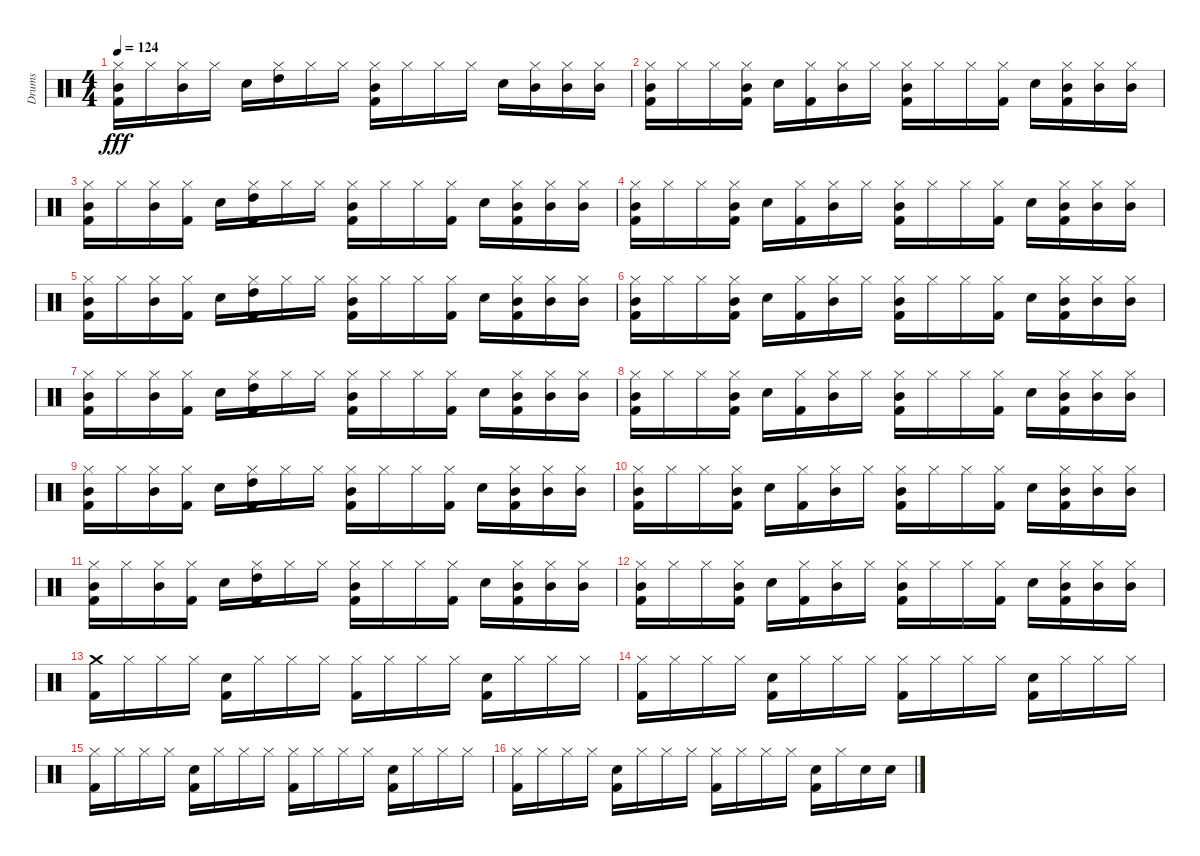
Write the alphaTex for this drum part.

\track ("Drums" "Drums") {instrument percussion}
\staff {score}
\articulation defaults
\ts (4 4)
\tempo 124
\clef neutral
\ks c
("Hi-Hat (closed)" "Mid Tom (hit)" "Kick (hit) 2").16{dy fff} "Hi-Hat (closed)".16 ("Hi-Hat (closed)" "Mid Tom (hit)").16 "Hi-Hat (closed)".16 "Snare (hit) 2".16 ("Hi-Hat (closed)" "High Tom (hit)").16 "Hi-Hat (closed)".16 "Hi-Hat (closed)".16 ("Hi-Hat (closed)" "Mid Tom (hit)" "Kick (hit) 2").16 "Hi-Hat (closed)".16 "Hi-Hat (closed)".16 "Hi-Hat (closed)".16 "Snare (hit) 2".16 ("Hi-Hat (closed)" "Mid Tom (hit)").16 ("Hi-Hat (closed)" "Mid Tom (hit)").16 ("Hi-Hat (closed)" "Mid Tom (hit)").16 |
("Hi-Hat (closed)" "Mid Tom (hit)" "Kick (hit) 2").16 "Hi-Hat (closed)".16 "Hi-Hat (closed)".16 ("Hi-Hat (closed)" "Mid Tom (hit)" "Kick (hit) 2").16 "Snare (hit) 2".16 ("Hi-Hat (closed)" "Kick (hit) 2").16 ("Hi-Hat (closed)" "Mid Tom (hit)").16 "Hi-Hat (closed)".16 ("Hi-Hat (closed)" "Mid Tom (hit)" "Kick (hit) 2").16 "Hi-Hat (closed)".16 "Hi-Hat (closed)".16 ("Hi-Hat (closed)" "Kick (hit) 2").16 "Snare (hit) 2".16 ("Hi-Hat (closed)" "Mid Tom (hit)" "Kick (hit) 2").16 ("Hi-Hat (closed)" "Mid Tom (hit)").16 ("Hi-Hat (closed)" "Mid Tom (hit)").16 |
("Hi-Hat (closed)" "Mid Tom (hit)" "Kick (hit) 2").16 "Hi-Hat (closed)".16 ("Hi-Hat (closed)" "Mid Tom (hit)").16 ("Hi-Hat (closed)" "Kick (hit) 2").16 "Snare (hit) 2".16 ("Hi-Hat (closed)" "High Tom (hit)" "Kick (hit) 2").16 "Hi-Hat (closed)".16 "Hi-Hat (closed)".16 ("Hi-Hat (closed)" "Mid Tom (hit)" "Kick (hit) 2").16 "Hi-Hat (closed)".16 "Hi-Hat (closed)".16 ("Hi-Hat (closed)" "Kick (hit) 2").16 "Snare (hit) 2".16 ("Hi-Hat (closed)" "Mid Tom (hit)" "Kick (hit) 2").16 ("Hi-Hat (closed)" "Mid Tom (hit)").16 ("Hi-Hat (closed)" "Mid Tom (hit)").16 |
("Hi-Hat (closed)" "Mid Tom (hit)" "Kick (hit) 2").16 "Hi-Hat (closed)".16 "Hi-Hat (closed)".16 ("Hi-Hat (closed)" "Mid Tom (hit)" "Kick (hit) 2").16 "Snare (hit) 2".16 ("Hi-Hat (closed)" "Kick (hit) 2").16 ("Hi-Hat (closed)" "Mid Tom (hit)").16 "Hi-Hat (closed)".16 ("Hi-Hat (closed)" "Mid Tom (hit)" "Kick (hit) 2").16 "Hi-Hat (closed)".16 "Hi-Hat (closed)".16 ("Hi-Hat (closed)" "Kick (hit) 2").16 "Snare (hit) 2".16 ("Hi-Hat (closed)" "Mid Tom (hit)" "Kick (hit) 2").16 ("Hi-Hat (closed)" "Mid Tom (hit)").16 ("Hi-Hat (closed)" "Mid Tom (hit)").16 |
("Hi-Hat (closed)" "Mid Tom (hit)" "Kick (hit) 2").16 "Hi-Hat (closed)".16 ("Hi-Hat (closed)" "Mid Tom (hit)").16 ("Hi-Hat (closed)" "Kick (hit) 2").16 "Snare (hit) 2".16 ("Hi-Hat (closed)" "High Tom (hit)" "Kick (hit) 2").16 "Hi-Hat (closed)".16 "Hi-Hat (closed)".16 ("Hi-Hat (closed)" "Mid Tom (hit)" "Kick (hit) 2").16 "Hi-Hat (closed)".16 "Hi-Hat (closed)".16 ("Hi-Hat (closed)" "Kick (hit) 2").16 "Snare (hit) 2".16 ("Hi-Hat (closed)" "Mid Tom (hit)" "Kick (hit) 2").16 ("Hi-Hat (closed)" "Mid Tom (hit)").16 ("Hi-Hat (closed)" "Mid Tom (hit)").16 |
("Hi-Hat (closed)" "Mid Tom (hit)" "Kick (hit) 2").16 "Hi-Hat (closed)".16 "Hi-Hat (closed)".16 ("Hi-Hat (closed)" "Mid Tom (hit)" "Kick (hit) 2").16 "Snare (hit) 2".16 ("Hi-Hat (closed)" "Kick (hit) 2").16 ("Hi-Hat (closed)" "Mid Tom (hit)").16 "Hi-Hat (closed)".16 ("Hi-Hat (closed)" "Mid Tom (hit)" "Kick (hit) 2").16 "Hi-Hat (closed)".16 "Hi-Hat (closed)".16 ("Hi-Hat (closed)" "Kick (hit) 2").16 "Snare (hit) 2".16 ("Hi-Hat (closed)" "Mid Tom (hit)" "Kick (hit) 2").16 ("Hi-Hat (closed)" "Mid Tom (hit)").16 ("Hi-Hat (closed)" "Mid Tom (hit)").16 |
("Hi-Hat (closed)" "Mid Tom (hit)" "Kick (hit) 2").16 "Hi-Hat (closed)".16 ("Hi-Hat (closed)" "Mid Tom (hit)").16 ("Hi-Hat (closed)" "Kick (hit) 2").16 "Snare (hit) 2".16 ("Hi-Hat (closed)" "High Tom (hit)" "Kick (hit) 2").16 "Hi-Hat (closed)".16 "Hi-Hat (closed)".16 ("Hi-Hat (closed)" "Mid Tom (hit)" "Kick (hit) 2").16 "Hi-Hat (closed)".16 "Hi-Hat (closed)".16 ("Hi-Hat (closed)" "Kick (hit) 2").16 "Snare (hit) 2".16 ("Hi-Hat (closed)" "Mid Tom (hit)" "Kick (hit) 2").16 ("Hi-Hat (closed)" "Mid Tom (hit)").16 ("Hi-Hat (closed)" "Mid Tom (hit)").16 |
("Hi-Hat (closed)" "Mid Tom (hit)" "Kick (hit) 2").16 "Hi-Hat (closed)".16 "Hi-Hat (closed)".16 ("Hi-Hat (closed)" "Mid Tom (hit)" "Kick (hit) 2").16 "Snare (hit) 2".16 ("Hi-Hat (closed)" "Kick (hit) 2").16 ("Hi-Hat (closed)" "Mid Tom (hit)").16 "Hi-Hat (closed)".16 ("Hi-Hat (closed)" "Mid Tom (hit)" "Kick (hit) 2").16 "Hi-Hat (closed)".16 "Hi-Hat (closed)".16 ("Hi-Hat (closed)" "Kick (hit) 2").16 "Snare (hit) 2".16 ("Hi-Hat (closed)" "Mid Tom (hit)" "Kick (hit) 2").16 ("Hi-Hat (closed)" "Mid Tom (hit)").16 ("Hi-Hat (closed)" "Mid Tom (hit)").16 |
("Hi-Hat (closed)" "Mid Tom (hit)" "Kick (hit) 2").16 "Hi-Hat (closed)".16 ("Hi-Hat (closed)" "Mid Tom (hit)").16 ("Hi-Hat (closed)" "Kick (hit) 2").16 "Snare (hit) 2".16 ("Hi-Hat (closed)" "High Tom (hit)" "Kick (hit) 2").16 "Hi-Hat (closed)".16 "Hi-Hat (closed)".16 ("Hi-Hat (closed)" "Mid Tom (hit)" "Kick (hit) 2").16 "Hi-Hat (closed)".16 "Hi-Hat (closed)".16 ("Hi-Hat (closed)" "Kick (hit) 2").16 "Snare (hit) 2".16 ("Hi-Hat (closed)" "Mid Tom (hit)" "Kick (hit) 2").16 ("Hi-Hat (closed)" "Mid Tom (hit)").16 ("Hi-Hat (closed)" "Mid Tom (hit)").16 |
("Hi-Hat (closed)" "Mid Tom (hit)" "Kick (hit) 2").16 "Hi-Hat (closed)".16 "Hi-Hat (closed)".16 ("Hi-Hat (closed)" "Mid Tom (hit)" "Kick (hit) 2").16 "Snare (hit) 2".16 ("Hi-Hat (closed)" "Kick (hit) 2").16 ("Hi-Hat (closed)" "Mid Tom (hit)").16 "Hi-Hat (closed)".16 ("Hi-Hat (closed)" "Mid Tom (hit)" "Kick (hit) 2").16 "Hi-Hat (closed)".16 "Hi-Hat (closed)".16 ("Hi-Hat (closed)" "Kick (hit) 2").16 "Snare (hit) 2".16 ("Hi-Hat (closed)" "Mid Tom (hit)" "Kick (hit) 2").16 ("Hi-Hat (closed)" "Mid Tom (hit)").16 ("Hi-Hat (closed)" "Mid Tom (hit)").16 |
("Hi-Hat (closed)" "Mid Tom (hit)" "Kick (hit) 2").16 "Hi-Hat (closed)".16 ("Hi-Hat (closed)" "Mid Tom (hit)").16 ("Hi-Hat (closed)" "Kick (hit) 2").16 "Snare (hit) 2".16 ("Hi-Hat (closed)" "High Tom (hit)" "Kick (hit) 2").16 "Hi-Hat (closed)".16 "Hi-Hat (closed)".16 ("Hi-Hat (closed)" "Mid Tom (hit)" "Kick (hit) 2").16 "Hi-Hat (closed)".16 "Hi-Hat (closed)".16 ("Hi-Hat (closed)" "Kick (hit) 2").16 "Snare (hit) 2".16 ("Hi-Hat (closed)" "Mid Tom (hit)" "Kick (hit) 2").16 ("Hi-Hat (closed)" "Mid Tom (hit)").16 ("Hi-Hat (closed)" "Mid Tom (hit)").16 |
("Hi-Hat (closed)" "Mid Tom (hit)" "Kick (hit) 2").16 "Hi-Hat (closed)".16 "Hi-Hat (closed)".16 ("Hi-Hat (closed)" "Mid Tom (hit)" "Kick (hit) 2").16 "Snare (hit) 2".16 ("Hi-Hat (closed)" "Kick (hit) 2").16 ("Hi-Hat (closed)" "Mid Tom (hit)").16 "Hi-Hat (closed)".16 ("Hi-Hat (closed)" "Mid Tom (hit)" "Kick (hit) 2").16 "Hi-Hat (closed)".16 "Hi-Hat (closed)".16 ("Hi-Hat (closed)" "Kick (hit) 2").16 "Snare (hit) 2".16 ("Hi-Hat (closed)" "Mid Tom (hit)" "Kick (hit) 2").16 ("Hi-Hat (closed)" "Mid Tom (hit)").16 ("Hi-Hat (closed)" "Mid Tom (hit)").16 |
("Crash medium (hit)" "Kick (hit) 2").16 "Hi-Hat (closed)".16 "Hi-Hat (closed)".16 "Hi-Hat (closed)".16 ("Snare (hit) 2" "Kick (hit) 2").16 "Hi-Hat (closed)".16 "Hi-Hat (closed)".16 "Hi-Hat (closed)".16 ("Hi-Hat (closed)" "Kick (hit) 2").16 "Hi-Hat (closed)".16 "Hi-Hat (closed)".16 "Hi-Hat (closed)".16 ("Snare (hit) 2" "Kick (hit) 2").16 "Hi-Hat (closed)".16 "Hi-Hat (closed)".16 "Hi-Hat (closed)".16 |
("Hi-Hat (closed)" "Kick (hit) 2").16 "Hi-Hat (closed)".16 "Hi-Hat (closed)".16 "Hi-Hat (closed)".16 ("Snare (hit) 2" "Kick (hit) 2").16 "Hi-Hat (closed)".16 "Hi-Hat (closed)".16 "Hi-Hat (closed)".16 ("Hi-Hat (closed)" "Kick (hit) 2").16 "Hi-Hat (closed)".16 "Hi-Hat (closed)".16 "Hi-Hat (closed)".16 ("Snare (hit) 2" "Kick (hit) 2").16 "Hi-Hat (closed)".16 "Hi-Hat (closed)".16 "Hi-Hat (closed)".16 |
("Hi-Hat (closed)" "Kick (hit) 2").16 "Hi-Hat (closed)".16 "Hi-Hat (closed)".16 "Hi-Hat (closed)".16 ("Snare (hit) 2" "Kick (hit) 2").16 "Hi-Hat (closed)".16 "Hi-Hat (closed)".16 "Hi-Hat (closed)".16 ("Hi-Hat (closed)" "Kick (hit) 2").16 "Hi-Hat (closed)".16 "Hi-Hat (closed)".16 "Hi-Hat (closed)".16 ("Snare (hit) 2" "Kick (hit) 2").16 "Hi-Hat (closed)".16 "Hi-Hat (closed)".16 "Hi-Hat (closed)".16 |
("Hi-Hat (closed)" "Kick (hit) 2").16 "Hi-Hat (closed)".16 "Hi-Hat (closed)".16 "Hi-Hat (closed)".16 ("Snare (hit) 2" "Kick (hit) 2").16 "Hi-Hat (closed)".16 "Hi-Hat (closed)".16 "Hi-Hat (closed)".16 ("Hi-Hat (closed)" "Kick (hit) 2").16 "Hi-Hat (closed)".16 "Hi-Hat (closed)".16 "Hi-Hat (closed)".16 ("Snare (hit) 2" "Kick (hit) 2").16 "Hi-Hat (closed)".16 "Snare (hit) 2".16 "Snare (hit) 2".16
